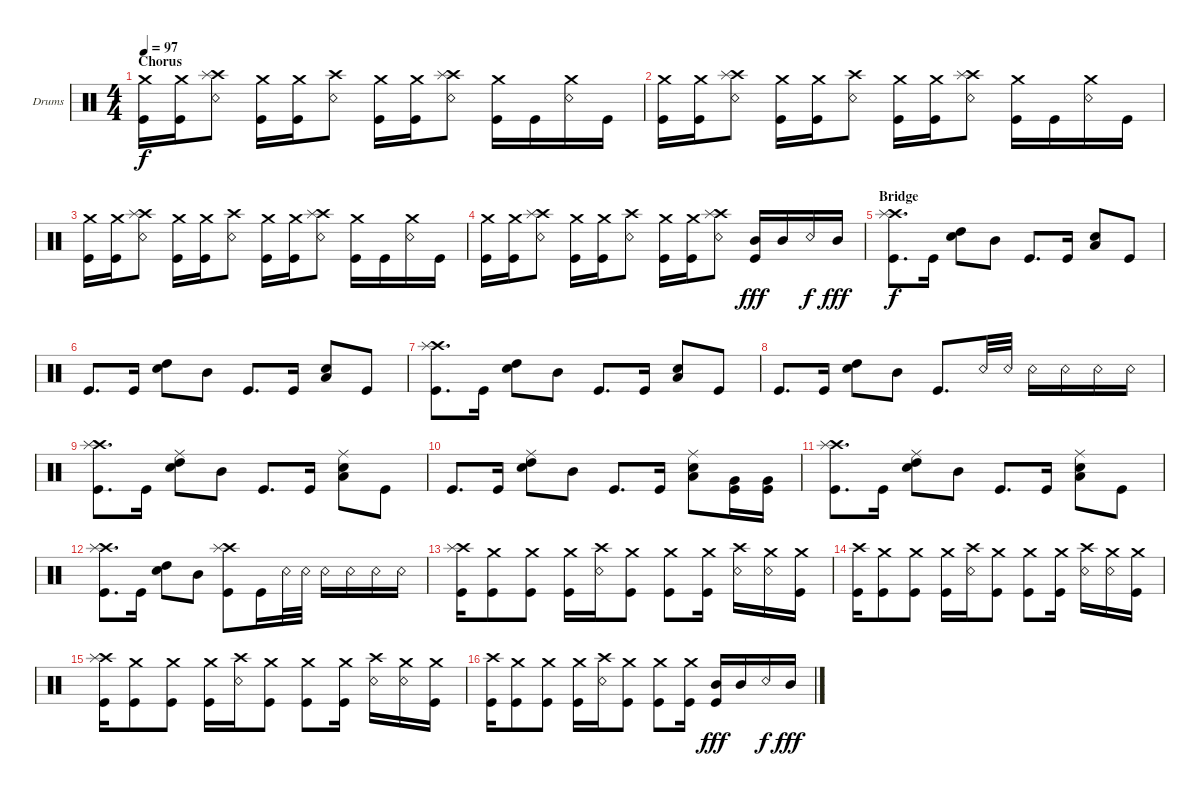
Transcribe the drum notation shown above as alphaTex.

\bracketExtendMode groupsimilarinstruments
\firstSystemTrackNameOrientation horizontal
\otherSystemsTrackNameOrientation horizontal
\track ("Drumkit" "Drums") {instrument percussion}
\staff {score}
\articulation defaults
\ts (4 4)
\section ("" "Chorus")
\tempo 97
\clef neutral
\scale
0.333333
\ks c
("Kick (hit)" "Crash medium (hit)").16{dy f} ("Kick (hit)" "Crash medium (hit)").16 ("Snare (rim shot)" "Crash high (hit)" "Splash (hit)").8 ("Kick (hit)" "Crash medium (hit)").16 ("Kick (hit)" "Crash medium (hit)").16 ("Snare (rim shot)" "Crash high (hit)").8 ("Kick (hit)" "Crash medium (hit)").16 ("Kick (hit)" "Crash medium (hit)").16 ("Snare (rim shot)" "Crash high (hit)" "Splash (hit)").8 ("Kick (hit)" "Crash medium (hit)").16 "Kick (hit)".16 ("Snare (rim shot)" "Crash medium (hit)").16 "Kick (hit)".16 |
\scale
0.333333 ("Kick (hit)" "Crash medium (hit)").16 ("Kick (hit)" "Crash medium (hit)").16 ("Snare (rim shot)" "Crash high (hit)" "Splash (hit)").8 ("Kick (hit)" "Crash medium (hit)").16 ("Kick (hit)" "Crash medium (hit)").16 ("Snare (rim shot)" "Crash high (hit)").8 ("Kick (hit)" "Crash medium (hit)").16 ("Kick (hit)" "Crash medium (hit)").16 ("Snare (rim shot)" "Crash high (hit)" "Splash (hit)").8 ("Kick (hit)" "Crash medium (hit)").16 "Kick (hit)".16 ("Snare (rim shot)" "Crash medium (hit)").16 "Kick (hit)".16 |
\scale
0.333333 ("Kick (hit)" "Crash medium (hit)").16 ("Kick (hit)" "Crash medium (hit)").16 ("Snare (rim shot)" "Crash high (hit)" "Splash (hit)").8 ("Kick (hit)" "Crash medium (hit)").16 ("Kick (hit)" "Crash medium (hit)").16 ("Snare (rim shot)" "Crash high (hit)").8 ("Kick (hit)" "Crash medium (hit)").16 ("Kick (hit)" "Crash medium (hit)").16 ("Snare (rim shot)" "Crash high (hit)" "Splash (hit)").8 ("Kick (hit)" "Crash medium (hit)").16 "Kick (hit)".16 ("Snare (rim shot)" "Crash medium (hit)").16 "Kick (hit)".16 |
\scale
0.333333 ("Kick (hit)" "Crash medium (hit)").16 ("Kick (hit)" "Crash medium (hit)").16 ("Snare (rim shot)" "Crash high (hit)" "Splash (hit)").8 ("Kick (hit)" "Crash medium (hit)").16 ("Kick (hit)" "Crash medium (hit)").16 ("Snare (rim shot)" "Crash high (hit)").8 ("Kick (hit)" "Crash medium (hit)").16 ("Kick (hit)" "Crash medium (hit)").16 ("Snare (rim shot)" "Crash high (hit)" "Splash (hit)").8 ("Kick (hit)" "Mid Tom (hit)").16{dy fff} "Mid Tom (hit)".16 "Snare (rim shot)".16{dy f} "Mid Tom (hit)".16{dy fff} |
\section ("" "Bridge")
\scale
0.333333 ("Kick (hit)" "Crash high (hit)" "Splash (hit)").8{d dy f} "Kick (hit)".16 ("High Tom (hit)" "Snare (hit) 2").8 "Mid Tom (hit)".8 "Kick (hit)".8{d} "Kick (hit)".16 ("Low Tom (hit)" "Snare (hit) 2").8 "Kick (hit)".8 |
\scale
0.333333 "Kick (hit)".8{d} "Kick (hit)".16 ("High Tom (hit)" "Snare (hit) 2").8 "Mid Tom (hit)".8 "Kick (hit)".8{d} "Kick (hit)".16 ("Low Tom (hit)" "Snare (hit) 2").8 "Kick (hit)".8 |
\scale
0.333333 ("Kick (hit)" "Crash high (hit)" "Splash (hit)").8{d} "Kick (hit)".16 ("High Tom (hit)" "Snare (hit) 2").8 "Mid Tom (hit)".8 "Kick (hit)".8{d} "Kick (hit)".16 ("Low Tom (hit)" "Snare (hit) 2").8 "Kick (hit)".8 |
\scale
0.333333 "Kick (hit)".8{d} "Kick (hit)".16 ("High Tom (hit)" "Snare (hit) 2").8 "Mid Tom (hit)".8 "Kick (hit)".8{d} "Snare (rim shot)".32 "Snare (rim shot)".32 "Snare (rim shot)".16 "Snare (rim shot)".16 "Snare (rim shot)".16 "Snare (rim shot)".16 |
\scale
0.333333 ("Kick (hit)" "Crash high (hit)" "Splash (hit)").8{d} "Kick (hit)".16 ("High Tom (hit)" "Snare (hit) 2" "Ride (middle)").8 "Mid Tom (hit)".8 "Kick (hit)".8{d} "Kick (hit)".16 ("Low Tom (hit)" "Snare (hit) 2" "Ride (middle)").8 "Kick (hit)".8 |
\scale
0.333333 "Kick (hit)".8{d} "Kick (hit)".16 ("High Tom (hit)" "Snare (hit) 2" "Ride (middle)").8 "Mid Tom (hit)".8 "Kick (hit)".8{d} "Kick (hit)".16 ("Low Tom (hit)" "Snare (hit) 2" "Ride (middle)").8 ("Very Low Tom (hit)" "Kick (hit)").16 ("Kick (hit)" "Very Low Tom (hit)").16 |
\scale
0.333333 ("Kick (hit)" "Crash high (hit)" "Splash (hit)").8{d} "Kick (hit)".16 ("High Tom (hit)" "Snare (hit) 2" "Ride (middle)").8 "Mid Tom (hit)".8 "Kick (hit)".8{d} "Kick (hit)".16 ("Low Tom (hit)" "Snare (hit) 2" "Ride (middle)").8 "Kick (hit)".8 |
\scale
0.333333 ("Kick (hit)" "Crash high (hit)" "Splash (hit)").8{d} "Kick (hit)".16 ("High Tom (hit)" "Snare (hit) 2").8 "Mid Tom (hit)".8 ("Kick (hit)" "Crash high (hit)" "Splash (hit)").8 "Kick (hit)".16 "Snare (rim shot)".32 "Snare (rim shot)".32 "Snare (rim shot)".16 "Snare (rim shot)".16 "Snare (rim shot)".16 "Snare (rim shot)".16 |
\scale
0.333333 ("Kick (hit)" "Crash high (hit)" "Splash (hit)").16 ("Kick (hit)" "Crash medium (hit)").8 ("Kick (hit)" "Crash medium (hit)").8 ("Kick (hit)" "Crash medium (hit)").16 ("Snare (rim shot)" "Crash high (hit)").16 ("Kick (hit)" "Crash medium (hit)").8 ("Kick (hit)" "Crash medium (hit)").8 ("Kick (hit)" "Crash medium (hit)").16 ("Snare (rim shot)" "Crash high (hit)").16 ("Snare (rim shot)" "Crash medium (hit)").16 ("Kick (hit)" "Crash medium (hit)").16 |
\scale
0.333333 ("Kick (hit)" "Crash high (hit)").16 ("Kick (hit)" "Crash medium (hit)").8 ("Kick (hit)" "Crash medium (hit)").8 ("Kick (hit)" "Crash medium (hit)").16 ("Snare (rim shot)" "Crash high (hit)").16 ("Kick (hit)" "Crash medium (hit)").8 ("Kick (hit)" "Crash medium (hit)").8 ("Kick (hit)" "Crash medium (hit)").16 ("Snare (rim shot)" "Crash high (hit)").16 ("Snare (rim shot)" "Crash medium (hit)").16 ("Kick (hit)" "Crash medium (hit)").16 |
\scale
0.333333 ("Kick (hit)" "Crash high (hit)" "Splash (hit)").16 ("Kick (hit)" "Crash medium (hit)").8 ("Kick (hit)" "Crash medium (hit)").8 ("Kick (hit)" "Crash medium (hit)").16 ("Snare (rim shot)" "Crash high (hit)").16 ("Kick (hit)" "Crash medium (hit)").8 ("Kick (hit)" "Crash medium (hit)").8 ("Kick (hit)" "Crash medium (hit)").16 ("Snare (rim shot)" "Crash high (hit)").16 ("Snare (rim shot)" "Crash medium (hit)").16 ("Kick (hit)" "Crash medium (hit)").16 |
\scale
0.333333 ("Kick (hit)" "Crash high (hit)").16 ("Kick (hit)" "Crash medium (hit)").8 ("Kick (hit)" "Crash medium (hit)").8 ("Kick (hit)" "Crash medium (hit)").16 ("Snare (rim shot)" "Crash high (hit)").16 ("Kick (hit)" "Crash medium (hit)").8 ("Kick (hit)" "Crash medium (hit)").8 ("Kick (hit)" "Crash medium (hit)").16 ("Kick (hit)" "Mid Tom (hit)").16{dy fff} "Mid Tom (hit)".16 "Snare (rim shot)".16{dy f} "Mid Tom (hit)".16{dy fff}
